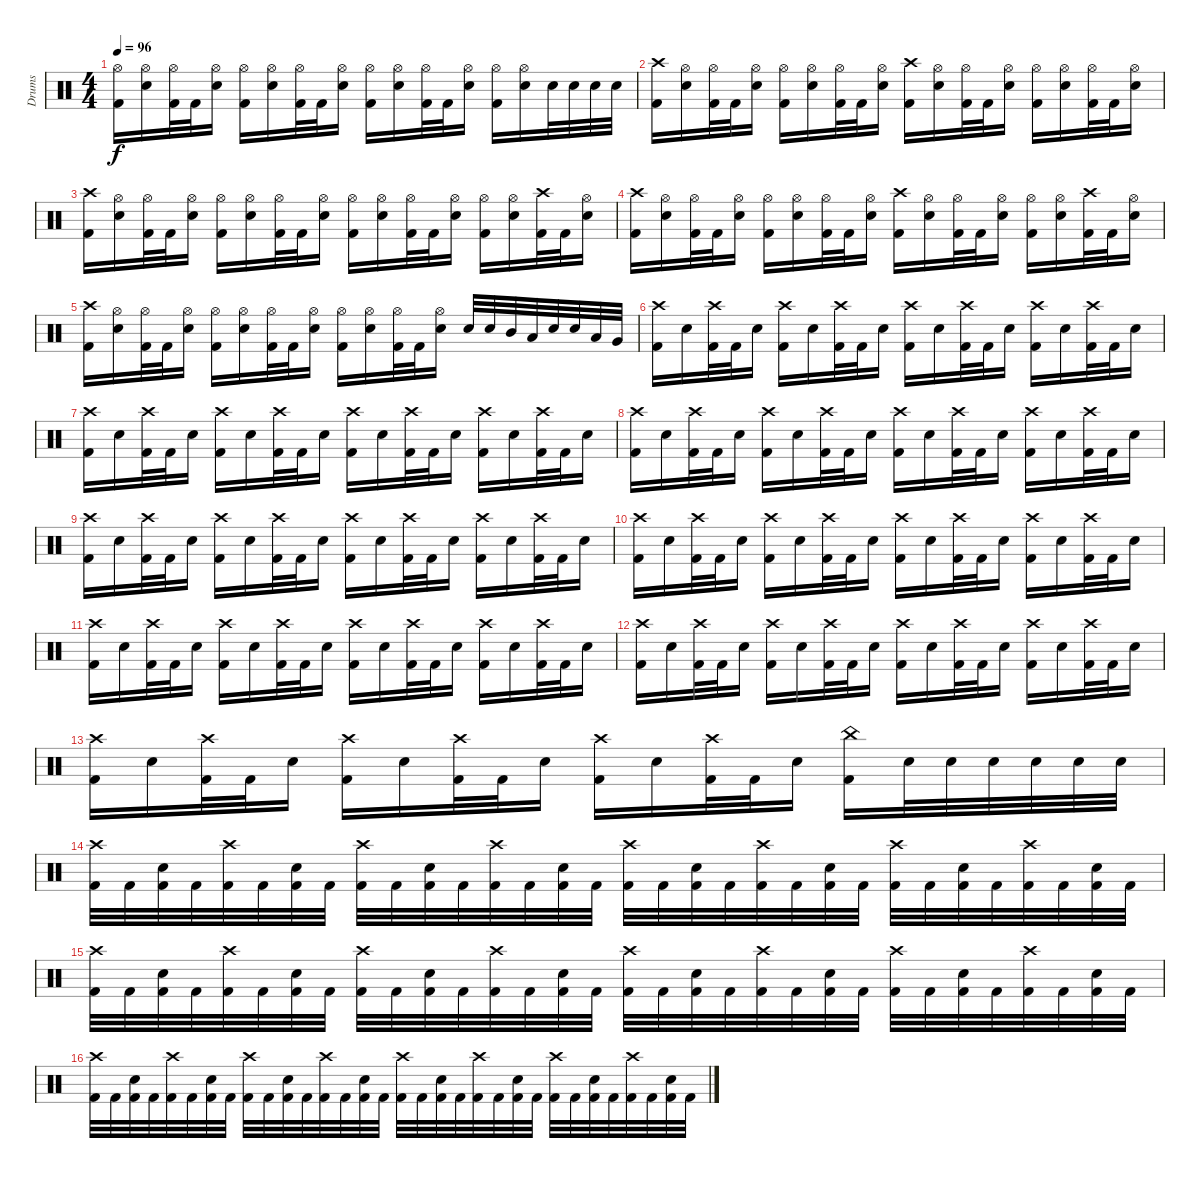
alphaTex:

\track ("Drums" "Drums") {instrument percussion}
\staff
\articulation defaults
\ts (4 4)
\tempo 96
\clef neutral
\ks c
("Hi-Hat (open)" "Kick (hit) 2").16{dy f} ("Hi-Hat (open)" "Electric Snare (hit)").16 ("Hi-Hat (open)" "Kick (hit) 2").32 "Kick (hit) 2".32 ("Hi-Hat (open)" "Electric Snare (hit)").16 ("Hi-Hat (open)" "Kick (hit) 2").16 ("Hi-Hat (open)" "Electric Snare (hit)").16 ("Hi-Hat (open)" "Kick (hit) 2").32 "Kick (hit) 2".32 ("Hi-Hat (open)" "Electric Snare (hit)").16 ("Hi-Hat (open)" "Kick (hit) 2").16 ("Hi-Hat (open)" "Electric Snare (hit)").16 ("Hi-Hat (open)" "Kick (hit) 2").32 "Kick (hit) 2".32 ("Hi-Hat (open)" "Electric Snare (hit)").16 ("Hi-Hat (open)" "Kick (hit) 2").16 ("Hi-Hat (open)" "Electric Snare (hit)").16 "Electric Snare (hit)".32 "Electric Snare (hit)".32 "Electric Snare (hit)".32 "Electric Snare (hit)".32 |
("Crash high (hit)" "Kick (hit) 2").16 ("Hi-Hat (open)" "Electric Snare (hit)").16 ("Hi-Hat (open)" "Kick (hit) 2").32 "Kick (hit) 2".32 ("Hi-Hat (open)" "Electric Snare (hit)").16 ("Hi-Hat (open)" "Kick (hit) 2").16 ("Hi-Hat (open)" "Electric Snare (hit)").16 ("Hi-Hat (open)" "Kick (hit) 2").32 "Kick (hit) 2".32 ("Hi-Hat (open)" "Electric Snare (hit)").16 ("Crash high (hit)" "Kick (hit) 2").16 ("Hi-Hat (open)" "Electric Snare (hit)").16 ("Hi-Hat (open)" "Kick (hit) 2").32 "Kick (hit) 2".32 ("Hi-Hat (open)" "Electric Snare (hit)").16 ("Hi-Hat (open)" "Kick (hit) 2").16 ("Hi-Hat (open)" "Electric Snare (hit)").16 ("Hi-Hat (open)" "Kick (hit) 2").32 "Kick (hit) 2".32 ("Hi-Hat (open)" "Electric Snare (hit)").16 |
("Crash high (hit)" "Kick (hit) 2").16 ("Hi-Hat (open)" "Electric Snare (hit)").16 ("Hi-Hat (open)" "Kick (hit) 2").32 "Kick (hit) 2".32 ("Hi-Hat (open)" "Electric Snare (hit)").16 ("Hi-Hat (open)" "Kick (hit) 2").16 ("Hi-Hat (open)" "Electric Snare (hit)").16 ("Hi-Hat (open)" "Kick (hit) 2").32 "Kick (hit) 2".32 ("Hi-Hat (open)" "Electric Snare (hit)").16 ("Hi-Hat (open)" "Kick (hit) 2").16 ("Hi-Hat (open)" "Electric Snare (hit)").16 ("Hi-Hat (open)" "Kick (hit) 2").32 "Kick (hit) 2".32 ("Hi-Hat (open)" "Electric Snare (hit)").16 ("Hi-Hat (open)" "Kick (hit) 2").16 ("Hi-Hat (open)" "Electric Snare (hit)").16 ("Crash high (hit)" "Kick (hit) 2").32 "Kick (hit) 2".32 ("Hi-Hat (open)" "Electric Snare (hit)").16 |
("Crash high (hit)" "Kick (hit) 2").16 ("Hi-Hat (open)" "Electric Snare (hit)").16 ("Hi-Hat (open)" "Kick (hit) 2").32 "Kick (hit) 2".32 ("Hi-Hat (open)" "Electric Snare (hit)").16 ("Hi-Hat (open)" "Kick (hit) 2").16 ("Hi-Hat (open)" "Electric Snare (hit)").16 ("Hi-Hat (open)" "Kick (hit) 2").32 "Kick (hit) 2".32 ("Hi-Hat (open)" "Electric Snare (hit)").16 ("Crash high (hit)" "Kick (hit) 2").16 ("Hi-Hat (open)" "Electric Snare (hit)").16 ("Hi-Hat (open)" "Kick (hit) 2").32 "Kick (hit) 2".32 ("Hi-Hat (open)" "Electric Snare (hit)").16 ("Hi-Hat (open)" "Kick (hit) 2").16 ("Hi-Hat (open)" "Electric Snare (hit)").16 ("Crash high (hit)" "Kick (hit) 2").32 "Kick (hit) 2".32 ("Hi-Hat (open)" "Electric Snare (hit)").16 |
("Crash high (hit)" "Kick (hit) 2").16 ("Hi-Hat (open)" "Electric Snare (hit)").16 ("Hi-Hat (open)" "Kick (hit) 2").32 "Kick (hit) 2".32 ("Hi-Hat (open)" "Electric Snare (hit)").16 ("Hi-Hat (open)" "Kick (hit) 2").16 ("Hi-Hat (open)" "Electric Snare (hit)").16 ("Hi-Hat (open)" "Kick (hit) 2").32 "Kick (hit) 2".32 ("Hi-Hat (open)" "Electric Snare (hit)").16 ("Hi-Hat (open)" "Kick (hit) 2").16 ("Hi-Hat (open)" "Electric Snare (hit)").16 ("Hi-Hat (open)" "Kick (hit) 2").32 "Kick (hit) 2".32 ("Hi-Hat (open)" "Electric Snare (hit)").16 "Electric Snare (hit)".32 "Electric Snare (hit)".32 "Mid Tom (hit)".32 "Low Tom (hit)".32 "Electric Snare (hit)".32 "Electric Snare (hit)".32 "Low Tom (hit)".32 "Very Low Tom (hit)".32 |
("Crash high (hit)" "Kick (hit) 2").16 "Electric Snare (hit)".16 ("Crash high (hit)" "Kick (hit) 2").32 "Kick (hit) 2".32 "Electric Snare (hit)".16 ("Crash high (hit)" "Kick (hit) 2").16 "Electric Snare (hit)".16 ("Crash high (hit)" "Kick (hit) 2").32 "Kick (hit) 2".32 "Electric Snare (hit)".16 ("Crash high (hit)" "Kick (hit) 2").16 "Electric Snare (hit)".16 ("Crash high (hit)" "Kick (hit) 2").32 "Kick (hit) 2".32 "Electric Snare (hit)".16 ("Crash high (hit)" "Kick (hit) 2").16 "Electric Snare (hit)".16 ("Crash high (hit)" "Kick (hit) 2").32 "Kick (hit) 2".32 "Electric Snare (hit)".16 |
("Crash high (hit)" "Kick (hit) 2").16 "Electric Snare (hit)".16 ("Crash high (hit)" "Kick (hit) 2").32 "Kick (hit) 2".32 "Electric Snare (hit)".16 ("Crash high (hit)" "Kick (hit) 2").16 "Electric Snare (hit)".16 ("Crash high (hit)" "Kick (hit) 2").32 "Kick (hit) 2".32 "Electric Snare (hit)".16 ("Crash high (hit)" "Kick (hit) 2").16 "Electric Snare (hit)".16 ("Crash high (hit)" "Kick (hit) 2").32 "Kick (hit) 2".32 "Electric Snare (hit)".16 ("Crash high (hit)" "Kick (hit) 2").16 "Electric Snare (hit)".16 ("Crash high (hit)" "Kick (hit) 2").32 "Kick (hit) 2".32 "Electric Snare (hit)".16 |
("Crash high (hit)" "Kick (hit) 2").16 "Electric Snare (hit)".16 ("Crash high (hit)" "Kick (hit) 2").32 "Kick (hit) 2".32 "Electric Snare (hit)".16 ("Crash high (hit)" "Kick (hit) 2").16 "Electric Snare (hit)".16 ("Crash high (hit)" "Kick (hit) 2").32 "Kick (hit) 2".32 "Electric Snare (hit)".16 ("Crash high (hit)" "Kick (hit) 2").16 "Electric Snare (hit)".16 ("Crash high (hit)" "Kick (hit) 2").32 "Kick (hit) 2".32 "Electric Snare (hit)".16 ("Crash high (hit)" "Kick (hit) 2").16 "Electric Snare (hit)".16 ("Crash high (hit)" "Kick (hit) 2").32 "Kick (hit) 2".32 "Electric Snare (hit)".16 |
("Crash high (hit)" "Kick (hit) 2").16 "Electric Snare (hit)".16 ("Crash high (hit)" "Kick (hit) 2").32 "Kick (hit) 2".32 "Electric Snare (hit)".16 ("Crash high (hit)" "Kick (hit) 2").16 "Electric Snare (hit)".16 ("Crash high (hit)" "Kick (hit) 2").32 "Kick (hit) 2".32 "Electric Snare (hit)".16 ("Crash high (hit)" "Kick (hit) 2").16 "Electric Snare (hit)".16 ("Crash high (hit)" "Kick (hit) 2").32 "Kick (hit) 2".32 "Electric Snare (hit)".16 ("Crash high (hit)" "Kick (hit) 2").16 "Electric Snare (hit)".16 ("Crash high (hit)" "Kick (hit) 2").32 "Kick (hit) 2".32 "Electric Snare (hit)".16 |
("Crash high (hit)" "Kick (hit) 2").16 "Electric Snare (hit)".16 ("Crash high (hit)" "Kick (hit) 2").32 "Kick (hit) 2".32 "Electric Snare (hit)".16 ("Crash high (hit)" "Kick (hit) 2").16 "Electric Snare (hit)".16 ("Crash high (hit)" "Kick (hit) 2").32 "Kick (hit) 2".32 "Electric Snare (hit)".16 ("Crash high (hit)" "Kick (hit) 2").16 "Electric Snare (hit)".16 ("Crash high (hit)" "Kick (hit) 2").32 "Kick (hit) 2".32 "Electric Snare (hit)".16 ("Crash high (hit)" "Kick (hit) 2").16 "Electric Snare (hit)".16 ("Crash high (hit)" "Kick (hit) 2").32 "Kick (hit) 2".32 "Electric Snare (hit)".16 |
("Crash high (hit)" "Kick (hit) 2").16 "Electric Snare (hit)".16 ("Crash high (hit)" "Kick (hit) 2").32 "Kick (hit) 2".32 "Electric Snare (hit)".16 ("Crash high (hit)" "Kick (hit) 2").16 "Electric Snare (hit)".16 ("Crash high (hit)" "Kick (hit) 2").32 "Kick (hit) 2".32 "Electric Snare (hit)".16 ("Crash high (hit)" "Kick (hit) 2").16 "Electric Snare (hit)".16 ("Crash high (hit)" "Kick (hit) 2").32 "Kick (hit) 2".32 "Electric Snare (hit)".16 ("Crash high (hit)" "Kick (hit) 2").16 "Electric Snare (hit)".16 ("Crash high (hit)" "Kick (hit) 2").32 "Kick (hit) 2".32 "Electric Snare (hit)".16 |
("Crash high (hit)" "Kick (hit) 2").16 "Electric Snare (hit)".16 ("Crash high (hit)" "Kick (hit) 2").32 "Kick (hit) 2".32 "Electric Snare (hit)".16 ("Crash high (hit)" "Kick (hit) 2").16 "Electric Snare (hit)".16 ("Crash high (hit)" "Kick (hit) 2").32 "Kick (hit) 2".32 "Electric Snare (hit)".16 ("Crash high (hit)" "Kick (hit) 2").16 "Electric Snare (hit)".16 ("Crash high (hit)" "Kick (hit) 2").32 "Kick (hit) 2".32 "Electric Snare (hit)".16 ("Crash high (hit)" "Kick (hit) 2").16 "Electric Snare (hit)".16 ("Crash high (hit)" "Kick (hit) 2").32 "Kick (hit) 2".32 "Electric Snare (hit)".16 |
("Crash high (hit)" "Kick (hit) 2").16 "Electric Snare (hit)".16 ("Crash high (hit)" "Kick (hit) 2").32 "Kick (hit) 2".32 "Electric Snare (hit)".16 ("Crash high (hit)" "Kick (hit) 2").16 "Electric Snare (hit)".16 ("Crash high (hit)" "Kick (hit) 2").32 "Kick (hit) 2".32 "Electric Snare (hit)".16 ("Crash high (hit)" "Kick (hit) 2").16 "Electric Snare (hit)".16 ("Crash high (hit)" "Kick (hit) 2").32 "Kick (hit) 2".32 "Electric Snare (hit)".16 ("China (hit)" "Kick (hit) 2").16 "Electric Snare (hit)".32 "Electric Snare (hit)".32 "Electric Snare (hit)".32 "Electric Snare (hit)".32 "Electric Snare (hit)".32 "Electric Snare (hit)".32 |
("Crash high (hit)" "Kick (hit) 2").32 "Kick (hit) 2".32 ("Electric Snare (hit)" "Kick (hit) 2").32 "Kick (hit) 2".32 ("Crash high (hit)" "Kick (hit) 2").32 "Kick (hit) 2".32 ("Electric Snare (hit)" "Kick (hit) 2").32 "Kick (hit) 2".32 ("Crash high (hit)" "Kick (hit) 2").32 "Kick (hit) 2".32 ("Electric Snare (hit)" "Kick (hit) 2").32 "Kick (hit) 2".32 ("Crash high (hit)" "Kick (hit) 2").32 "Kick (hit) 2".32 ("Electric Snare (hit)" "Kick (hit) 2").32 "Kick (hit) 2".32 ("Crash high (hit)" "Kick (hit) 2").32 "Kick (hit) 2".32 ("Electric Snare (hit)" "Kick (hit) 2").32 "Kick (hit) 2".32 ("Crash high (hit)" "Kick (hit) 2").32 "Kick (hit) 2".32 ("Electric Snare (hit)" "Kick (hit) 2").32 "Kick (hit) 2".32 ("Crash high (hit)" "Kick (hit) 2").32 "Kick (hit) 2".32 ("Electric Snare (hit)" "Kick (hit) 2").32 "Kick (hit) 2".32 ("Crash high (hit)" "Kick (hit) 2").32 "Kick (hit) 2".32 ("Electric Snare (hit)" "Kick (hit) 2").32 "Kick (hit) 2".32 |
("Crash high (hit)" "Kick (hit) 2").32 "Kick (hit) 2".32 ("Electric Snare (hit)" "Kick (hit) 2").32 "Kick (hit) 2".32 ("Crash high (hit)" "Kick (hit) 2").32 "Kick (hit) 2".32 ("Electric Snare (hit)" "Kick (hit) 2").32 "Kick (hit) 2".32 ("Crash high (hit)" "Kick (hit) 2").32 "Kick (hit) 2".32 ("Electric Snare (hit)" "Kick (hit) 2").32 "Kick (hit) 2".32 ("Crash high (hit)" "Kick (hit) 2").32 "Kick (hit) 2".32 ("Electric Snare (hit)" "Kick (hit) 2").32 "Kick (hit) 2".32 ("Crash high (hit)" "Kick (hit) 2").32 "Kick (hit) 2".32 ("Electric Snare (hit)" "Kick (hit) 2").32 "Kick (hit) 2".32 ("Crash high (hit)" "Kick (hit) 2").32 "Kick (hit) 2".32 ("Electric Snare (hit)" "Kick (hit) 2").32 "Kick (hit) 2".32 ("Crash high (hit)" "Kick (hit) 2").32 "Kick (hit) 2".32 ("Electric Snare (hit)" "Kick (hit) 2").32 "Kick (hit) 2".32 ("Crash high (hit)" "Kick (hit) 2").32 "Kick (hit) 2".32 ("Electric Snare (hit)" "Kick (hit) 2").32 "Kick (hit) 2".32 |
("Crash high (hit)" "Kick (hit) 2").32 "Kick (hit) 2".32 ("Electric Snare (hit)" "Kick (hit) 2").32 "Kick (hit) 2".32 ("Crash high (hit)" "Kick (hit) 2").32 "Kick (hit) 2".32 ("Electric Snare (hit)" "Kick (hit) 2").32 "Kick (hit) 2".32 ("Crash high (hit)" "Kick (hit) 2").32 "Kick (hit) 2".32 ("Electric Snare (hit)" "Kick (hit) 2").32 "Kick (hit) 2".32 ("Crash high (hit)" "Kick (hit) 2").32 "Kick (hit) 2".32 ("Electric Snare (hit)" "Kick (hit) 2").32 "Kick (hit) 2".32 ("Crash high (hit)" "Kick (hit) 2").32 "Kick (hit) 2".32 ("Electric Snare (hit)" "Kick (hit) 2").32 "Kick (hit) 2".32 ("Crash high (hit)" "Kick (hit) 2").32 "Kick (hit) 2".32 ("Electric Snare (hit)" "Kick (hit) 2").32 "Kick (hit) 2".32 ("Crash high (hit)" "Kick (hit) 2").32 "Kick (hit) 2".32 ("Electric Snare (hit)" "Kick (hit) 2").32 "Kick (hit) 2".32 ("Crash high (hit)" "Kick (hit) 2").32 "Kick (hit) 2".32 ("Electric Snare (hit)" "Kick (hit) 2").32 "Kick (hit) 2".32
